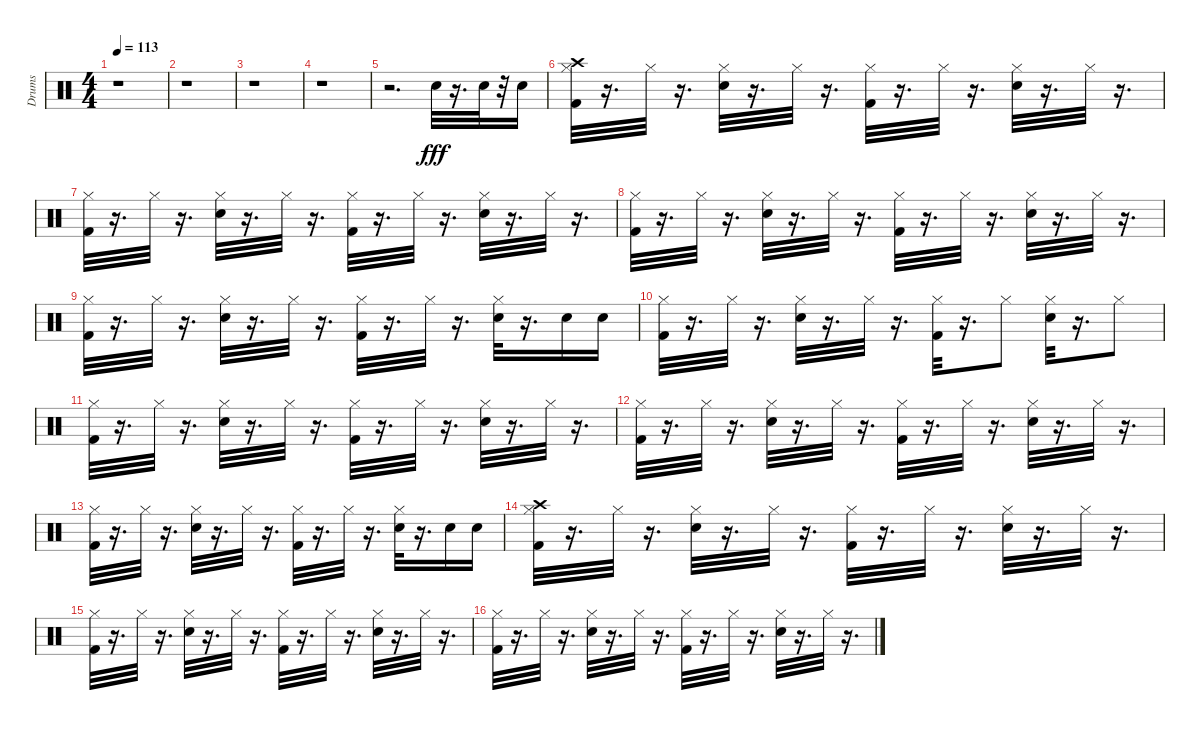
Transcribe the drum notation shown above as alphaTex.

\track ("Drums" "Drums") {instrument percussion}
\staff {score}
\articulation defaults
\ts (4 4)
\tempo 113
\clef neutral
\ks c
r.1{dy fff} |
r.1 |
r.1 |
r.1 |
r.2{d} "Snare (hit) 2".32 r.16{d} "Snare (hit) 2".32 r.32 "Snare (hit) 2".16 |
("Kick (hit) 2" "Hi-Hat (closed)" "Crash high (hit)").32 r.16{d} "Hi-Hat (closed)".32 r.16{d} ("Snare (hit) 2" "Hi-Hat (closed)").32 r.16{d} "Hi-Hat (closed)".32 r.16{d} ("Kick (hit) 2" "Hi-Hat (closed)").32 r.16{d} "Hi-Hat (closed)".32 r.16{d} ("Snare (hit) 2" "Hi-Hat (closed)").32 r.16{d} "Hi-Hat (closed)".32 r.16{d} |
("Kick (hit) 2" "Hi-Hat (closed)").32 r.16{d} "Hi-Hat (closed)".32 r.16{d} ("Snare (hit) 2" "Hi-Hat (closed)").32 r.16{d} "Hi-Hat (closed)".32 r.16{d} ("Kick (hit) 2" "Hi-Hat (closed)").32 r.16{d} "Hi-Hat (closed)".32 r.16{d} ("Snare (hit) 2" "Hi-Hat (closed)").32 r.16{d} "Hi-Hat (closed)".32 r.16{d} |
("Kick (hit) 2" "Hi-Hat (closed)").32 r.16{d} "Hi-Hat (closed)".32 r.16{d} ("Snare (hit) 2" "Hi-Hat (closed)").32 r.16{d} "Hi-Hat (closed)".32 r.16{d} ("Kick (hit) 2" "Hi-Hat (closed)").32 r.16{d} "Hi-Hat (closed)".32 r.16{d} ("Snare (hit) 2" "Hi-Hat (closed)").32 r.16{d} "Hi-Hat (closed)".32 r.16{d} |
("Kick (hit) 2" "Hi-Hat (closed)").32 r.16{d} "Hi-Hat (closed)".32 r.16{d} ("Snare (hit) 2" "Hi-Hat (closed)").32 r.16{d} "Hi-Hat (closed)".32 r.16{d} ("Kick (hit) 2" "Hi-Hat (closed)").32 r.16{d} "Hi-Hat (closed)".32 r.16{d} ("Snare (hit) 2" "Hi-Hat (closed)").32 r.16{d} "Snare (hit) 2".16 "Snare (hit) 2".16 |
("Kick (hit) 2" "Hi-Hat (closed)").32 r.16{d} "Hi-Hat (closed)".32 r.16{d} ("Snare (hit) 2" "Hi-Hat (closed)").32 r.16{d} "Hi-Hat (closed)".32 r.16{d} ("Kick (hit) 2" "Hi-Hat (closed)").32 r.16{d} "Hi-Hat (closed)".8 ("Snare (hit) 2" "Hi-Hat (closed)").32 r.16{d} "Hi-Hat (closed)".8 |
("Kick (hit) 2" "Hi-Hat (closed)").32 r.16{d} "Hi-Hat (closed)".32 r.16{d} ("Snare (hit) 2" "Hi-Hat (closed)").32 r.16{d} "Hi-Hat (closed)".32 r.16{d} ("Kick (hit) 2" "Hi-Hat (closed)").32 r.16{d} "Hi-Hat (closed)".32 r.16{d} ("Snare (hit) 2" "Hi-Hat (closed)").32 r.16{d} "Hi-Hat (closed)".32 r.16{d} |
("Kick (hit) 2" "Hi-Hat (closed)").32 r.16{d} "Hi-Hat (closed)".32 r.16{d} ("Snare (hit) 2" "Hi-Hat (closed)").32 r.16{d} "Hi-Hat (closed)".32 r.16{d} ("Kick (hit) 2" "Hi-Hat (closed)").32 r.16{d} "Hi-Hat (closed)".32 r.16{d} ("Snare (hit) 2" "Hi-Hat (closed)").32 r.16{d} "Hi-Hat (closed)".32 r.16{d} |
("Kick (hit) 2" "Hi-Hat (closed)").32 r.16{d} "Hi-Hat (closed)".32 r.16{d} ("Snare (hit) 2" "Hi-Hat (closed)").32 r.16{d} "Hi-Hat (closed)".32 r.16{d} ("Kick (hit) 2" "Hi-Hat (closed)").32 r.16{d} "Hi-Hat (closed)".32 r.16{d} ("Snare (hit) 2" "Hi-Hat (closed)").32 r.16{d} "Snare (hit) 2".16 "Snare (hit) 2".16 |
("Kick (hit) 2" "Hi-Hat (closed)" "Crash high (hit)").32 r.16{d} "Hi-Hat (closed)".32 r.16{d} ("Snare (hit) 2" "Hi-Hat (closed)").32 r.16{d} "Hi-Hat (closed)".32 r.16{d} ("Kick (hit) 2" "Hi-Hat (closed)").32 r.16{d} "Hi-Hat (closed)".32 r.16{d} ("Snare (hit) 2" "Hi-Hat (closed)").32 r.16{d} "Hi-Hat (closed)".32 r.16{d} |
("Kick (hit) 2" "Hi-Hat (closed)").32 r.16{d} "Hi-Hat (closed)".32 r.16{d} ("Snare (hit) 2" "Hi-Hat (closed)").32 r.16{d} "Hi-Hat (closed)".32 r.16{d} ("Kick (hit) 2" "Hi-Hat (closed)").32 r.16{d} "Hi-Hat (closed)".32 r.16{d} ("Snare (hit) 2" "Hi-Hat (closed)").32 r.16{d} "Hi-Hat (closed)".32 r.16{d} |
("Kick (hit) 2" "Hi-Hat (closed)").32 r.16{d} "Hi-Hat (closed)".32 r.16{d} ("Snare (hit) 2" "Hi-Hat (closed)").32 r.16{d} "Hi-Hat (closed)".32 r.16{d} ("Kick (hit) 2" "Hi-Hat (closed)").32 r.16{d} "Hi-Hat (closed)".32 r.16{d} ("Snare (hit) 2" "Hi-Hat (closed)").32 r.16{d} "Hi-Hat (closed)".32 r.16{d}
